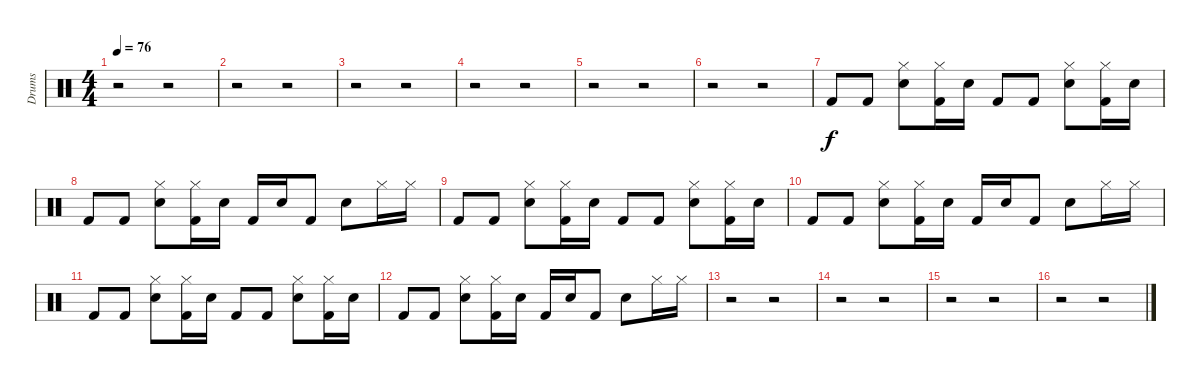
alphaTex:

\track ("Drums" "Drums") {instrument percussion}
\staff {score}
\articulation defaults
\ts (4 4)
\tempo 76
\clef neutral
\ks c
r.2{dy f} r.2 |
r.2 r.2 |
r.2 r.2 |
r.2 r.2 |
r.2 r.2 |
r.2 r.2 |
"Kick (hit) 2".8 "Kick (hit) 2".8 ("Electric Snare (hit)" "Hi-Hat (closed)").8 ("Kick (hit) 2" "Hi-Hat (closed)").16 "Electric Snare (hit)".16 "Kick (hit) 2".8 "Kick (hit) 2".8 ("Electric Snare (hit)" "Hi-Hat (closed)").8 ("Kick (hit) 2" "Hi-Hat (closed)").16 "Electric Snare (hit)".16 |
"Kick (hit) 2".8 "Kick (hit) 2".8 ("Electric Snare (hit)" "Hi-Hat (closed)").8 ("Kick (hit) 2" "Hi-Hat (closed)").16 "Electric Snare (hit)".16 "Kick (hit) 2".16 "Electric Snare (hit)".16 "Kick (hit) 2".8 "Electric Snare (hit)".8 "Hi-Hat (closed)".16 "Hi-Hat (closed)".16 |
"Kick (hit) 2".8 "Kick (hit) 2".8 ("Electric Snare (hit)" "Hi-Hat (closed)").8 ("Kick (hit) 2" "Hi-Hat (closed)").16 "Electric Snare (hit)".16 "Kick (hit) 2".8 "Kick (hit) 2".8 ("Electric Snare (hit)" "Hi-Hat (closed)").8 ("Kick (hit) 2" "Hi-Hat (closed)").16 "Electric Snare (hit)".16 |
"Kick (hit) 2".8 "Kick (hit) 2".8 ("Electric Snare (hit)" "Hi-Hat (closed)").8 ("Kick (hit) 2" "Hi-Hat (closed)").16 "Electric Snare (hit)".16 "Kick (hit) 2".16 "Electric Snare (hit)".16 "Kick (hit) 2".8 "Electric Snare (hit)".8 "Hi-Hat (closed)".16 "Hi-Hat (closed)".16 |
"Kick (hit) 2".8 "Kick (hit) 2".8 ("Electric Snare (hit)" "Hi-Hat (closed)").8 ("Kick (hit) 2" "Hi-Hat (closed)").16 "Electric Snare (hit)".16 "Kick (hit) 2".8 "Kick (hit) 2".8 ("Electric Snare (hit)" "Hi-Hat (closed)").8 ("Kick (hit) 2" "Hi-Hat (closed)").16 "Electric Snare (hit)".16 |
"Kick (hit) 2".8 "Kick (hit) 2".8 ("Electric Snare (hit)" "Hi-Hat (closed)").8 ("Kick (hit) 2" "Hi-Hat (closed)").16 "Electric Snare (hit)".16 "Kick (hit) 2".16 "Electric Snare (hit)".16 "Kick (hit) 2".8 "Electric Snare (hit)".8 "Hi-Hat (closed)".16 "Hi-Hat (closed)".16 |
r.2 r.2 |
r.2 r.2 |
r.2 r.2 |
r.2 r.2
